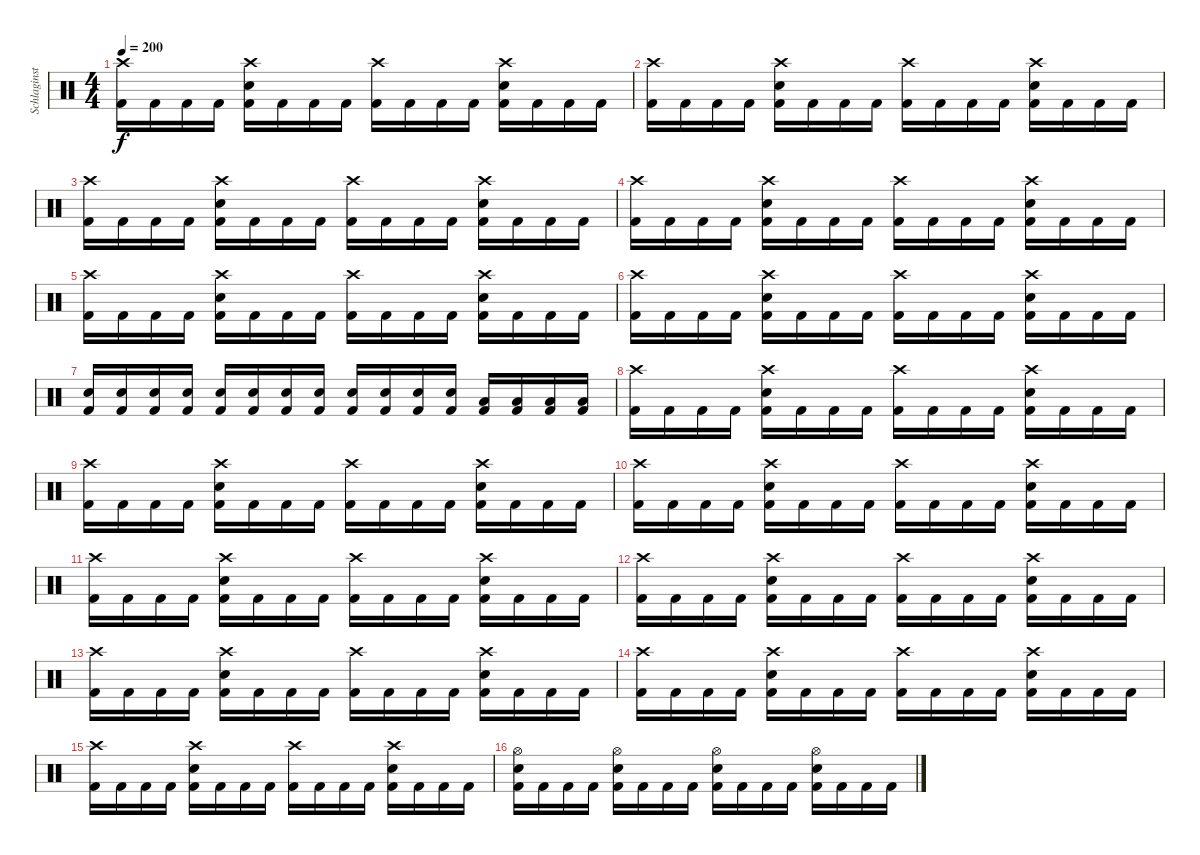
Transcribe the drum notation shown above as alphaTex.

\track ("Schlaginstrumente - Auswahl" "Schlaginst") {instrument percussion}
\staff {score}
\articulation defaults
\ts (4 4)
\tempo 200
\clef neutral
\ks c
("Crash high (hit)" "Kick (hit) 2").16{dy f} "Kick (hit) 2".16 "Kick (hit) 2".16 "Kick (hit) 2".16 ("Crash high (hit)" "Snare (hit) 2" "Kick (hit) 2").16 "Kick (hit) 2".16 "Kick (hit) 2".16 "Kick (hit) 2".16 ("Crash high (hit)" "Kick (hit) 2").16 "Kick (hit) 2".16 "Kick (hit) 2".16 "Kick (hit) 2".16 ("Crash high (hit)" "Snare (hit) 2" "Kick (hit) 2").16 "Kick (hit) 2".16 "Kick (hit) 2".16 "Kick (hit) 2".16 |
("Crash high (hit)" "Kick (hit) 2").16 "Kick (hit) 2".16 "Kick (hit) 2".16 "Kick (hit) 2".16 ("Crash high (hit)" "Snare (hit) 2" "Kick (hit) 2").16 "Kick (hit) 2".16 "Kick (hit) 2".16 "Kick (hit) 2".16 ("Crash high (hit)" "Kick (hit) 2").16 "Kick (hit) 2".16 "Kick (hit) 2".16 "Kick (hit) 2".16 ("Crash high (hit)" "Snare (hit) 2" "Kick (hit) 2").16 "Kick (hit) 2".16 "Kick (hit) 2".16 "Kick (hit) 2".16 |
("Crash high (hit)" "Kick (hit) 2").16 "Kick (hit) 2".16 "Kick (hit) 2".16 "Kick (hit) 2".16 ("Crash high (hit)" "Snare (hit) 2" "Kick (hit) 2").16 "Kick (hit) 2".16 "Kick (hit) 2".16 "Kick (hit) 2".16 ("Crash high (hit)" "Kick (hit) 2").16 "Kick (hit) 2".16 "Kick (hit) 2".16 "Kick (hit) 2".16 ("Crash high (hit)" "Snare (hit) 2" "Kick (hit) 2").16 "Kick (hit) 2".16 "Kick (hit) 2".16 "Kick (hit) 2".16 |
("Crash high (hit)" "Kick (hit) 2").16 "Kick (hit) 2".16 "Kick (hit) 2".16 "Kick (hit) 2".16 ("Crash high (hit)" "Snare (hit) 2" "Kick (hit) 2").16 "Kick (hit) 2".16 "Kick (hit) 2".16 "Kick (hit) 2".16 ("Crash high (hit)" "Kick (hit) 2").16 "Kick (hit) 2".16 "Kick (hit) 2".16 "Kick (hit) 2".16 ("Crash high (hit)" "Snare (hit) 2" "Kick (hit) 2").16 "Kick (hit) 2".16 "Kick (hit) 2".16 "Kick (hit) 2".16 |
("Crash high (hit)" "Kick (hit) 2").16 "Kick (hit) 2".16 "Kick (hit) 2".16 "Kick (hit) 2".16 ("Crash high (hit)" "Snare (hit) 2" "Kick (hit) 2").16 "Kick (hit) 2".16 "Kick (hit) 2".16 "Kick (hit) 2".16 ("Crash high (hit)" "Kick (hit) 2").16 "Kick (hit) 2".16 "Kick (hit) 2".16 "Kick (hit) 2".16 ("Crash high (hit)" "Snare (hit) 2" "Kick (hit) 2").16 "Kick (hit) 2".16 "Kick (hit) 2".16 "Kick (hit) 2".16 |
("Crash high (hit)" "Kick (hit) 2").16 "Kick (hit) 2".16 "Kick (hit) 2".16 "Kick (hit) 2".16 ("Crash high (hit)" "Snare (hit) 2" "Kick (hit) 2").16 "Kick (hit) 2".16 "Kick (hit) 2".16 "Kick (hit) 2".16 ("Crash high (hit)" "Kick (hit) 2").16 "Kick (hit) 2".16 "Kick (hit) 2".16 "Kick (hit) 2".16 ("Crash high (hit)" "Snare (hit) 2" "Kick (hit) 2").16 "Kick (hit) 2".16 "Kick (hit) 2".16 "Kick (hit) 2".16 |
("Snare (hit) 2" "Kick (hit) 2").16 ("Snare (hit) 2" "Kick (hit) 2").16 ("Snare (hit) 2" "Kick (hit) 2").16 ("Snare (hit) 2" "Kick (hit) 2").16 ("Snare (hit) 2" "Kick (hit) 2").16 ("Snare (hit) 2" "Kick (hit) 2").16 ("Snare (hit) 2" "Kick (hit) 2").16 ("Snare (hit) 2" "Kick (hit) 2").16 ("Snare (hit) 2" "Kick (hit) 2").16 ("Snare (hit) 2" "Kick (hit) 2").16 ("Snare (hit) 2" "Kick (hit) 2").16 ("Snare (hit) 2" "Kick (hit) 2").16 ("Low Tom (hit)" "Kick (hit) 2").16 ("Low Tom (hit)" "Kick (hit) 2").16 ("Low Tom (hit)" "Kick (hit) 2").16 ("Low Tom (hit)" "Kick (hit) 2").16 |
("Crash high (hit)" "Kick (hit) 2").16 "Kick (hit) 2".16 "Kick (hit) 2".16 "Kick (hit) 2".16 ("Crash high (hit)" "Snare (hit) 2" "Kick (hit) 2").16 "Kick (hit) 2".16 "Kick (hit) 2".16 "Kick (hit) 2".16 ("Crash high (hit)" "Kick (hit) 2").16 "Kick (hit) 2".16 "Kick (hit) 2".16 "Kick (hit) 2".16 ("Crash high (hit)" "Snare (hit) 2" "Kick (hit) 2").16 "Kick (hit) 2".16 "Kick (hit) 2".16 "Kick (hit) 2".16 |
("Crash high (hit)" "Kick (hit) 2").16 "Kick (hit) 2".16 "Kick (hit) 2".16 "Kick (hit) 2".16 ("Crash high (hit)" "Snare (hit) 2" "Kick (hit) 2").16 "Kick (hit) 2".16 "Kick (hit) 2".16 "Kick (hit) 2".16 ("Crash high (hit)" "Kick (hit) 2").16 "Kick (hit) 2".16 "Kick (hit) 2".16 "Kick (hit) 2".16 ("Crash high (hit)" "Snare (hit) 2" "Kick (hit) 2").16 "Kick (hit) 2".16 "Kick (hit) 2".16 "Kick (hit) 2".16 |
("Crash high (hit)" "Kick (hit) 2").16 "Kick (hit) 2".16 "Kick (hit) 2".16 "Kick (hit) 2".16 ("Crash high (hit)" "Snare (hit) 2" "Kick (hit) 2").16 "Kick (hit) 2".16 "Kick (hit) 2".16 "Kick (hit) 2".16 ("Crash high (hit)" "Kick (hit) 2").16 "Kick (hit) 2".16 "Kick (hit) 2".16 "Kick (hit) 2".16 ("Crash high (hit)" "Snare (hit) 2" "Kick (hit) 2").16 "Kick (hit) 2".16 "Kick (hit) 2".16 "Kick (hit) 2".16 |
("Crash high (hit)" "Kick (hit) 2").16 "Kick (hit) 2".16 "Kick (hit) 2".16 "Kick (hit) 2".16 ("Crash high (hit)" "Snare (hit) 2" "Kick (hit) 2").16 "Kick (hit) 2".16 "Kick (hit) 2".16 "Kick (hit) 2".16 ("Crash high (hit)" "Kick (hit) 2").16 "Kick (hit) 2".16 "Kick (hit) 2".16 "Kick (hit) 2".16 ("Crash high (hit)" "Snare (hit) 2" "Kick (hit) 2").16 "Kick (hit) 2".16 "Kick (hit) 2".16 "Kick (hit) 2".16 |
("Crash high (hit)" "Kick (hit) 2").16 "Kick (hit) 2".16 "Kick (hit) 2".16 "Kick (hit) 2".16 ("Crash high (hit)" "Snare (hit) 2" "Kick (hit) 2").16 "Kick (hit) 2".16 "Kick (hit) 2".16 "Kick (hit) 2".16 ("Crash high (hit)" "Kick (hit) 2").16 "Kick (hit) 2".16 "Kick (hit) 2".16 "Kick (hit) 2".16 ("Crash high (hit)" "Snare (hit) 2" "Kick (hit) 2").16 "Kick (hit) 2".16 "Kick (hit) 2".16 "Kick (hit) 2".16 |
("Crash high (hit)" "Kick (hit) 2").16 "Kick (hit) 2".16 "Kick (hit) 2".16 "Kick (hit) 2".16 ("Crash high (hit)" "Snare (hit) 2" "Kick (hit) 2").16 "Kick (hit) 2".16 "Kick (hit) 2".16 "Kick (hit) 2".16 ("Crash high (hit)" "Kick (hit) 2").16 "Kick (hit) 2".16 "Kick (hit) 2".16 "Kick (hit) 2".16 ("Crash high (hit)" "Snare (hit) 2" "Kick (hit) 2").16 "Kick (hit) 2".16 "Kick (hit) 2".16 "Kick (hit) 2".16 |
("Crash high (hit)" "Kick (hit) 2").16 "Kick (hit) 2".16 "Kick (hit) 2".16 "Kick (hit) 2".16 ("Crash high (hit)" "Snare (hit) 2" "Kick (hit) 2").16 "Kick (hit) 2".16 "Kick (hit) 2".16 "Kick (hit) 2".16 ("Crash high (hit)" "Kick (hit) 2").16 "Kick (hit) 2".16 "Kick (hit) 2".16 "Kick (hit) 2".16 ("Crash high (hit)" "Snare (hit) 2" "Kick (hit) 2").16 "Kick (hit) 2".16 "Kick (hit) 2".16 "Kick (hit) 2".16 |
("Crash high (hit)" "Kick (hit) 2").16 "Kick (hit) 2".16 "Kick (hit) 2".16 "Kick (hit) 2".16 ("Crash high (hit)" "Snare (hit) 2" "Kick (hit) 2").16 "Kick (hit) 2".16 "Kick (hit) 2".16 "Kick (hit) 2".16 ("Crash high (hit)" "Kick (hit) 2").16 "Kick (hit) 2".16 "Kick (hit) 2".16 "Kick (hit) 2".16 ("Crash high (hit)" "Snare (hit) 2" "Kick (hit) 2").16 "Kick (hit) 2".16 "Kick (hit) 2".16 "Kick (hit) 2".16 |
("Hi-Hat (open)" "Snare (hit) 2" "Kick (hit) 2").16 "Kick (hit) 2".16 "Kick (hit) 2".16 "Kick (hit) 2".16 ("Hi-Hat (open)" "Snare (hit) 2" "Kick (hit) 2").16 "Kick (hit) 2".16 "Kick (hit) 2".16 "Kick (hit) 2".16 ("Hi-Hat (open)" "Snare (hit) 2" "Kick (hit) 2").16 "Kick (hit) 2".16 "Kick (hit) 2".16 "Kick (hit) 2".16 ("Hi-Hat (open)" "Snare (hit) 2" "Kick (hit) 2").16 "Kick (hit) 2".16 "Kick (hit) 2".16 "Kick (hit) 2".16
